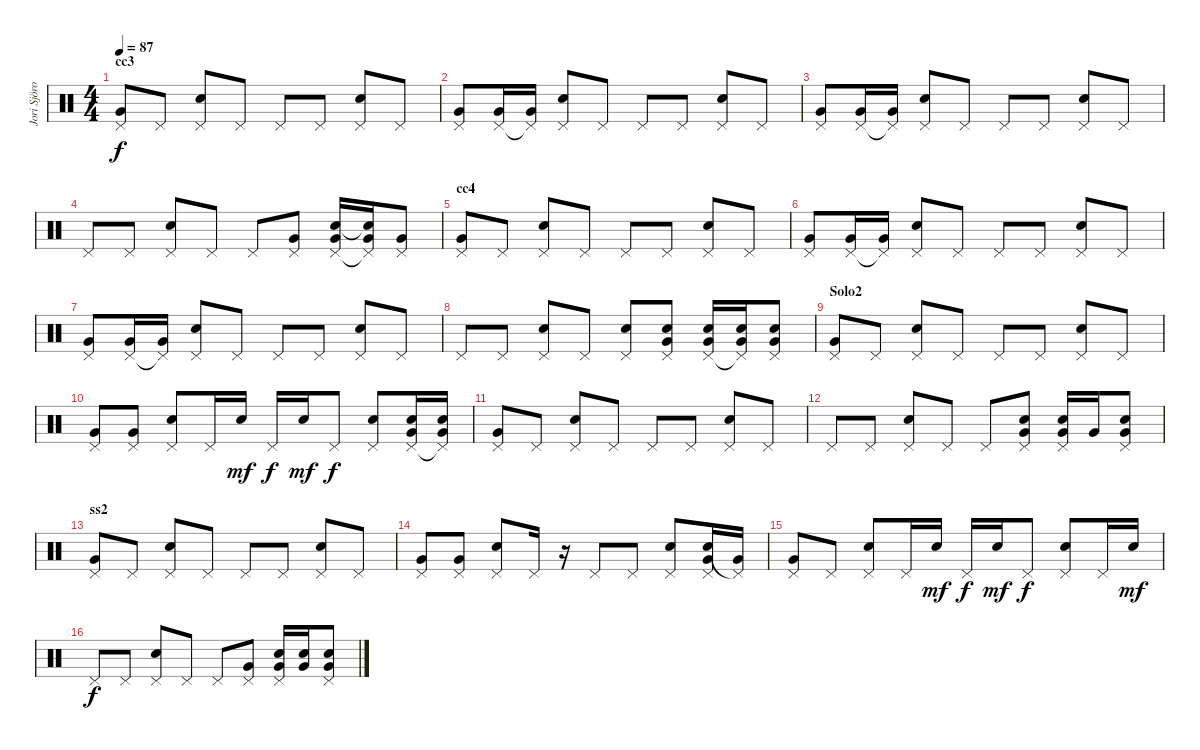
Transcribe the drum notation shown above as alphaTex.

\track ("Jori Sjöroos" "Jori Sjöro") {instrument percussion}
\staff {score}
\articulation defaults
\ts (4 4)
\section ("" "cc3")
\tempo 87
\clef neutral
\ks c
("Pedal Hi-Hat (hit)" "Very Low Tom (hit)").8{dy f} "Pedal Hi-Hat (hit)".8 ("Snare (hit) 2" "Pedal Hi-Hat (hit)").8 "Pedal Hi-Hat (hit)".8 "Pedal Hi-Hat (hit)".8 "Pedal Hi-Hat (hit)".8 ("Snare (hit) 2" "Pedal Hi-Hat (hit)").8 "Pedal Hi-Hat (hit)".8 |
("Pedal Hi-Hat (hit)" "Very Low Tom (hit)").8 ("Pedal Hi-Hat (hit)" "Very Low Tom (hit)").16 ("Pedal Hi-Hat (hit)"{t} "Very Low Tom (hit)").16 ("Snare (hit) 2" "Pedal Hi-Hat (hit)").8 "Pedal Hi-Hat (hit)".8 "Pedal Hi-Hat (hit)".8 "Pedal Hi-Hat (hit)".8 ("Snare (hit) 2" "Pedal Hi-Hat (hit)").8 "Pedal Hi-Hat (hit)".8 |
("Pedal Hi-Hat (hit)" "Very Low Tom (hit)").8 ("Pedal Hi-Hat (hit)" "Very Low Tom (hit)").16 ("Pedal Hi-Hat (hit)"{t} "Very Low Tom (hit)").16 ("Snare (hit) 2" "Pedal Hi-Hat (hit)").8 "Pedal Hi-Hat (hit)".8 "Pedal Hi-Hat (hit)".8 "Pedal Hi-Hat (hit)".8 ("Snare (hit) 2" "Pedal Hi-Hat (hit)").8 "Pedal Hi-Hat (hit)".8 |
"Pedal Hi-Hat (hit)".8 "Pedal Hi-Hat (hit)".8 ("Snare (hit) 2" "Pedal Hi-Hat (hit)").8 "Pedal Hi-Hat (hit)".8 "Pedal Hi-Hat (hit)".8 ("Pedal Hi-Hat (hit)" "Very Low Tom (hit)").8 ("Snare (hit) 2" "Pedal Hi-Hat (hit)" "Very Low Tom (hit)").16 ("Snare (hit) 2"{t} "Pedal Hi-Hat (hit)"{t} "Very Low Tom (hit)").16 ("Pedal Hi-Hat (hit)" "Very Low Tom (hit)").8 |
\section ("" "cc4")
("Pedal Hi-Hat (hit)" "Very Low Tom (hit)").8 "Pedal Hi-Hat (hit)".8 ("Snare (hit) 2" "Pedal Hi-Hat (hit)").8 "Pedal Hi-Hat (hit)".8 "Pedal Hi-Hat (hit)".8 "Pedal Hi-Hat (hit)".8 ("Snare (hit) 2" "Pedal Hi-Hat (hit)").8 "Pedal Hi-Hat (hit)".8 |
("Pedal Hi-Hat (hit)" "Very Low Tom (hit)").8 ("Pedal Hi-Hat (hit)" "Very Low Tom (hit)").16 ("Pedal Hi-Hat (hit)"{t} "Very Low Tom (hit)").16 ("Snare (hit) 2" "Pedal Hi-Hat (hit)").8 "Pedal Hi-Hat (hit)".8 "Pedal Hi-Hat (hit)".8 "Pedal Hi-Hat (hit)".8 ("Snare (hit) 2" "Pedal Hi-Hat (hit)").8 "Pedal Hi-Hat (hit)".8 |
("Pedal Hi-Hat (hit)" "Very Low Tom (hit)").8 ("Pedal Hi-Hat (hit)" "Very Low Tom (hit)").16 ("Pedal Hi-Hat (hit)"{t} "Very Low Tom (hit)").16 ("Snare (hit) 2" "Pedal Hi-Hat (hit)").8 "Pedal Hi-Hat (hit)".8 "Pedal Hi-Hat (hit)".8 "Pedal Hi-Hat (hit)".8 ("Snare (hit) 2" "Pedal Hi-Hat (hit)").8 "Pedal Hi-Hat (hit)".8 |
"Pedal Hi-Hat (hit)".8 "Pedal Hi-Hat (hit)".8 ("Snare (hit) 2" "Pedal Hi-Hat (hit)").8 "Pedal Hi-Hat (hit)".8 ("Snare (hit) 2" "Pedal Hi-Hat (hit)").8 ("Snare (hit) 2" "Pedal Hi-Hat (hit)" "Very Low Tom (hit)").8 ("Snare (hit) 2" "Pedal Hi-Hat (hit)" "Very Low Tom (hit)").16 ("Snare (hit) 2" "Pedal Hi-Hat (hit)"{t} "Very Low Tom (hit)").16 ("Snare (hit) 2" "Pedal Hi-Hat (hit)" "Very Low Tom (hit)").8 |
\section ("" "Solo2")
("Pedal Hi-Hat (hit)" "Very Low Tom (hit)").8 "Pedal Hi-Hat (hit)".8 ("Snare (hit) 2" "Pedal Hi-Hat (hit)").8 "Pedal Hi-Hat (hit)".8 "Pedal Hi-Hat (hit)".8 "Pedal Hi-Hat (hit)".8 ("Snare (hit) 2" "Pedal Hi-Hat (hit)").8 "Pedal Hi-Hat (hit)".8 |
("Pedal Hi-Hat (hit)" "Very Low Tom (hit)").8 ("Pedal Hi-Hat (hit)" "Very Low Tom (hit)").8 ("Snare (hit) 2" "Pedal Hi-Hat (hit)").8 "Pedal Hi-Hat (hit)".16 "Snare (hit) 2".16{dy mf} "Pedal Hi-Hat (hit)".16{dy f} "Snare (hit) 2".16{dy mf} "Pedal Hi-Hat (hit)".8{dy f} ("Snare (hit) 2" "Pedal Hi-Hat (hit)").8 ("Snare (hit) 2" "Pedal Hi-Hat (hit)" "Very Low Tom (hit)").16 ("Snare (hit) 2" "Pedal Hi-Hat (hit)"{t} "Very Low Tom (hit)").16 |
("Pedal Hi-Hat (hit)" "Very Low Tom (hit)").8 "Pedal Hi-Hat (hit)".8 ("Snare (hit) 2" "Pedal Hi-Hat (hit)").8 "Pedal Hi-Hat (hit)".8 "Pedal Hi-Hat (hit)".8 "Pedal Hi-Hat (hit)".8 ("Snare (hit) 2" "Pedal Hi-Hat (hit)").8 "Pedal Hi-Hat (hit)".8 |
"Pedal Hi-Hat (hit)".8 "Pedal Hi-Hat (hit)".8 ("Snare (hit) 2" "Pedal Hi-Hat (hit)").8 "Pedal Hi-Hat (hit)".8 "Pedal Hi-Hat (hit)".8 ("Snare (hit) 2" "Pedal Hi-Hat (hit)" "Very Low Tom (hit)").8 ("Snare (hit) 2" "Pedal Hi-Hat (hit)" "Very Low Tom (hit)").16 "Very Low Tom (hit)".16 ("Snare (hit) 2" "Pedal Hi-Hat (hit)" "Very Low Tom (hit)").8 |
\section ("" "ss2")
("Pedal Hi-Hat (hit)" "Very Low Tom (hit)").8 "Pedal Hi-Hat (hit)".8 ("Snare (hit) 2" "Pedal Hi-Hat (hit)").8 "Pedal Hi-Hat (hit)".8 "Pedal Hi-Hat (hit)".8 "Pedal Hi-Hat (hit)".8 ("Snare (hit) 2" "Pedal Hi-Hat (hit)").8 "Pedal Hi-Hat (hit)".8 |
("Pedal Hi-Hat (hit)" "Very Low Tom (hit)").8 ("Pedal Hi-Hat (hit)" "Very Low Tom (hit)").8 ("Snare (hit) 2" "Pedal Hi-Hat (hit)").8 "Pedal Hi-Hat (hit)".16 r.16 "Pedal Hi-Hat (hit)".8 "Pedal Hi-Hat (hit)".8 ("Snare (hit) 2" "Pedal Hi-Hat (hit)").8 ("Snare (hit) 2" "Pedal Hi-Hat (hit)" "Very Low Tom (hit)").16 ("Pedal Hi-Hat (hit)"{t} "Very Low Tom (hit)").16 |
("Pedal Hi-Hat (hit)" "Very Low Tom (hit)").8 "Pedal Hi-Hat (hit)".8 ("Snare (hit) 2" "Pedal Hi-Hat (hit)").8 "Pedal Hi-Hat (hit)".16 "Snare (hit) 2".16{dy mf} "Pedal Hi-Hat (hit)".16{dy f} "Snare (hit) 2".16{dy mf} "Pedal Hi-Hat (hit)".8{dy f} ("Snare (hit) 2" "Pedal Hi-Hat (hit)").8 "Pedal Hi-Hat (hit)".16 "Snare (hit) 2".16{dy mf} |
"Pedal Hi-Hat (hit)".8{dy f} "Pedal Hi-Hat (hit)".8 ("Snare (hit) 2" "Pedal Hi-Hat (hit)").8 "Pedal Hi-Hat (hit)".8 "Pedal Hi-Hat (hit)".8 ("Pedal Hi-Hat (hit)" "Very Low Tom (hit)").8 ("Snare (hit) 2" "Pedal Hi-Hat (hit)" "Very Low Tom (hit)").16 ("Snare (hit) 2" "Very Low Tom (hit)").16 ("Snare (hit) 2" "Pedal Hi-Hat (hit)" "Very Low Tom (hit)").8
